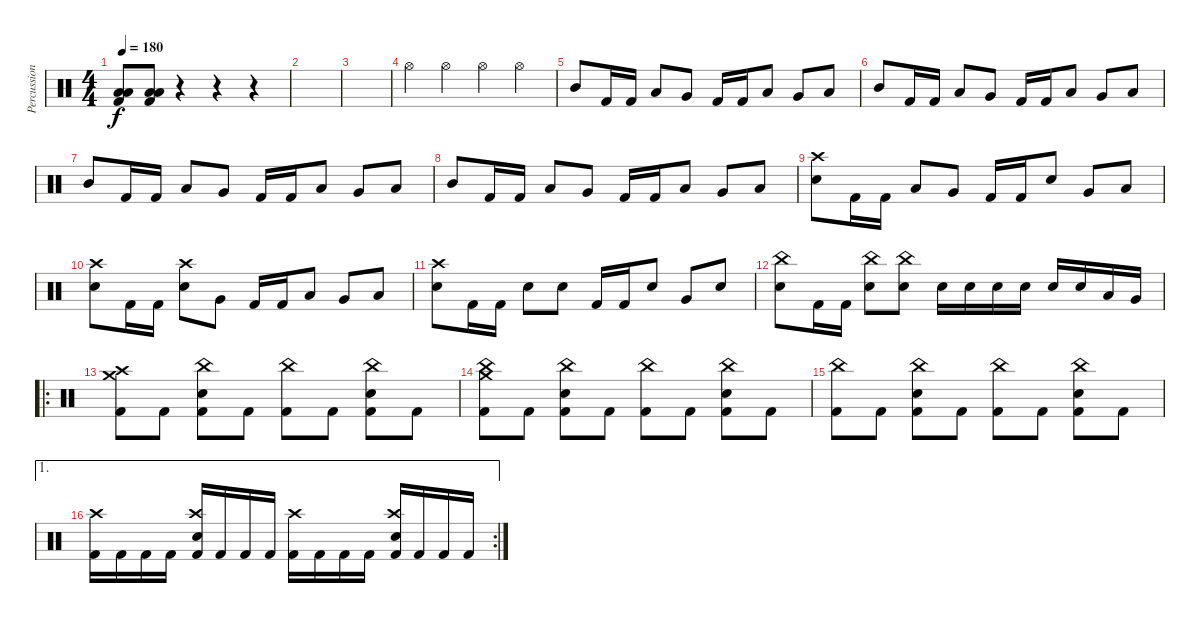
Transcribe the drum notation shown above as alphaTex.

\track ("Percussions" "Percussion") {instrument percussion}
\staff {score}
\articulation defaults
\ts (4 4)
\tempo 180
\clef neutral
\ks c
("Low Floor Tom (hit)" "Low Floor Tom (hit)" "Kick (hit) 2").8{dy f} ("Low Floor Tom (hit)" "Low Floor Tom (hit)" "Kick (hit) 2").8 r.4 r.4 r.4 |
|
|
"Hi-Hat (open)".4 "Hi-Hat (open)".4 "Hi-Hat (open)".4 "Hi-Hat (open)".4 |
"Mid Tom (hit)".8 "Kick (hit) 2".16 "Kick (hit) 2".16 "Low Tom (hit)".8 "Very Low Tom (hit)".8 "Kick (hit) 2".16 "Kick (hit) 2".16 "Low Tom (hit)".8 "Very Low Tom (hit)".8 "Low Floor Tom (hit)".8 |
"Mid Tom (hit)".8 "Kick (hit) 2".16 "Kick (hit) 2".16 "Low Tom (hit)".8 "Very Low Tom (hit)".8 "Kick (hit) 2".16 "Kick (hit) 2".16 "Low Tom (hit)".8 "Very Low Tom (hit)".8 "Low Floor Tom (hit)".8 |
"Mid Tom (hit)".8 "Kick (hit) 2".16 "Kick (hit) 2".16 "Low Tom (hit)".8 "Very Low Tom (hit)".8 "Kick (hit) 2".16 "Kick (hit) 2".16 "Low Tom (hit)".8 "Very Low Tom (hit)".8 "Low Floor Tom (hit)".8 |
"Mid Tom (hit)".8 "Kick (hit) 2".16 "Kick (hit) 2".16 "Low Tom (hit)".8 "Very Low Tom (hit)".8 "Kick (hit) 2".16 "Kick (hit) 2".16 "Low Tom (hit)".8 "Very Low Tom (hit)".8 "Low Floor Tom (hit)".8 |
("Crash high (hit)" "Snare (hit) 2").8 "Kick (hit) 2".16 "Kick (hit) 2".16 "Low Tom (hit)".8 "Very Low Tom (hit)".8 "Kick (hit) 2".16 "Kick (hit) 2".16 "Snare (hit) 2".8 "Very Low Tom (hit)".8 "Low Floor Tom (hit)".8 |
("Crash high (hit)" "Snare (hit) 2").8 "Kick (hit) 2".16 "Kick (hit) 2".16 ("Crash high (hit)" "Snare (hit) 2").8 "Very Low Tom (hit)".8 "Kick (hit) 2".16 "Kick (hit) 2".16 "Low Tom (hit)".8 "Very Low Tom (hit)".8 "Low Floor Tom (hit)".8 |
("Crash high (hit)" "Snare (hit) 2").8 "Kick (hit) 2".16 "Kick (hit) 2".16 "Snare (hit) 2".8 "Snare (hit) 2".8 "Kick (hit) 2".16 "Kick (hit) 2".16 "Snare (hit) 2".8 "Very Low Tom (hit)".8 "Snare (hit) 2".8 |
("China (hit)" "Snare (hit) 2").8 "Kick (hit) 2".16 "Kick (hit) 2".16 ("China (hit)" "Snare (hit) 2").8 ("China (hit)" "Snare (hit) 2").8 "Snare (hit) 2".16 "Snare (hit) 2".16 "Snare (hit) 2".16 "Snare (hit) 2".16 "Snare (hit) 2".16 "Snare (hit) 2".16 "Low Tom (hit)".16 "Very Low Tom (hit)".16 |
\ro
("Crash medium (hit)" "Crash high (hit)" "Kick (hit) 2").8 "Kick (hit) 2".8 ("China (hit)" "Snare (hit) 2" "Kick (hit) 2").8 "Kick (hit) 2".8 ("China (hit)" "Kick (hit) 2").8 "Kick (hit) 2".8 ("China (hit)" "Snare (hit) 2" "Kick (hit) 2").8 "Kick (hit) 2".8 |
("Crash medium (hit)" "China (hit)" "Kick (hit) 2").8 "Kick (hit) 2".8 ("China (hit)" "Snare (hit) 2" "Kick (hit) 2").8 "Kick (hit) 2".8 ("China (hit)" "Kick (hit) 2").8 "Kick (hit) 2".8 ("China (hit)" "Snare (hit) 2" "Kick (hit) 2").8 "Kick (hit) 2".8 |
("China (hit)" "Kick (hit) 2").8 "Kick (hit) 2".8 ("China (hit)" "Snare (hit) 2" "Kick (hit) 2").8 "Kick (hit) 2".8 ("China (hit)" "Kick (hit) 2").8 "Kick (hit) 2".8 ("China (hit)" "Snare (hit) 2" "Kick (hit) 2").8 "Kick (hit) 2".8 |
\ae 1
\rc 2
("Crash high (hit)" "Kick (hit) 2").16 "Kick (hit) 2".16 "Kick (hit) 2".16 "Kick (hit) 2".16 ("Crash high (hit)" "Snare (hit) 2" "Kick (hit) 2").16 "Kick (hit) 2".16 "Kick (hit) 2".16 "Kick (hit) 2".16 ("Crash high (hit)" "Kick (hit) 2").16 "Kick (hit) 2".16 "Kick (hit) 2".16 "Kick (hit) 2".16 ("Crash high (hit)" "Snare (hit) 2" "Kick (hit) 2").16 "Kick (hit) 2".16 "Kick (hit) 2".16 "Kick (hit) 2".16
